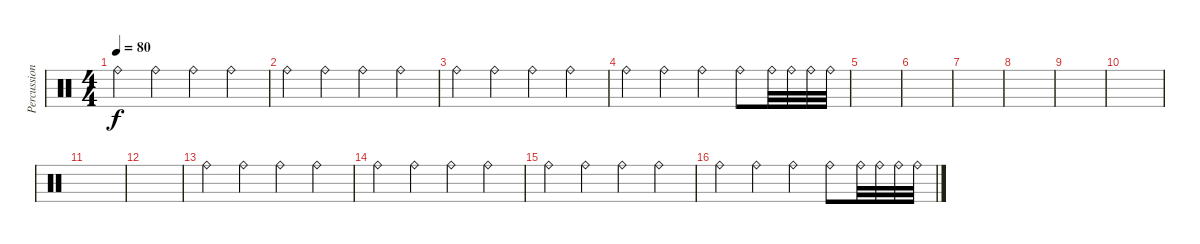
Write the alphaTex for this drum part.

\track ("Percussion" "Percussion") {instrument percussion}
\staff {score}
\articulation defaults
\ts (4 4)
\tempo 80
\clef neutral
\ks c "Ride (bell)".4{dy f} "Ride (bell)".4 "Ride (bell)".4 "Ride (bell)".4
|
"Ride (bell)".4 "Ride (bell)".4 "Ride (bell)".4 "Ride (bell)".4 |
"Ride (bell)".4 "Ride (bell)".4 "Ride (bell)".4 "Ride (bell)".4 |
"Ride (bell)".4 "Ride (bell)".4 "Ride (bell)".4 "Ride (bell)".8 "Ride (bell)".32 "Ride (bell)".32 "Ride (bell)".32 "Ride (bell)".32 |
|
|
|
|
|
|
|
|
"Ride (bell)".4 "Ride (bell)".4 "Ride (bell)".4 "Ride (bell)".4 |
"Ride (bell)".4 "Ride (bell)".4 "Ride (bell)".4 "Ride (bell)".4 |
"Ride (bell)".4 "Ride (bell)".4 "Ride (bell)".4 "Ride (bell)".4 |
"Ride (bell)".4 "Ride (bell)".4 "Ride (bell)".4 "Ride (bell)".8 "Ride (bell)".32 "Ride (bell)".32 "Ride (bell)".32 "Ride (bell)".32
